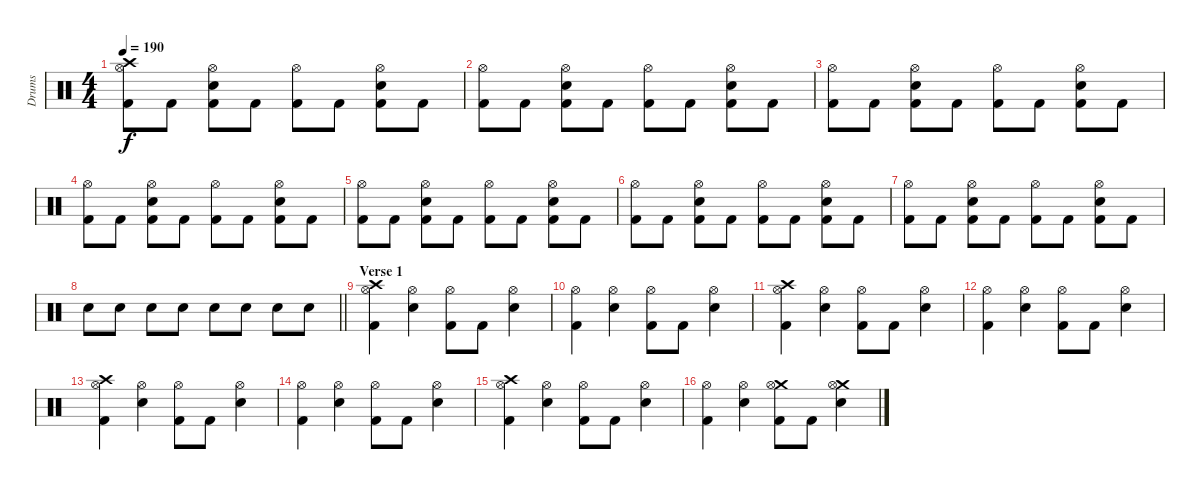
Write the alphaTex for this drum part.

\track ("Drums" "Drums") {instrument percussion}
\staff {score}
\articulation defaults
\ts (4 4)
\tempo 190
\clef neutral
\ks c
("Crash high (hit)" "Hi-Hat (open)" "Kick (hit) 2").8{dy f} "Kick (hit) 2".8 ("Hi-Hat (open)" "Electric Snare (hit)" "Kick (hit) 2").8 "Kick (hit) 2".8 ("Hi-Hat (open)" "Kick (hit) 2").8 "Kick (hit) 2".8 ("Hi-Hat (open)" "Electric Snare (hit)" "Kick (hit) 2").8 "Kick (hit) 2".8 |
("Hi-Hat (open)" "Kick (hit) 2").8 "Kick (hit) 2".8 ("Hi-Hat (open)" "Electric Snare (hit)" "Kick (hit) 2").8 "Kick (hit) 2".8 ("Hi-Hat (open)" "Kick (hit) 2").8 "Kick (hit) 2".8 ("Hi-Hat (open)" "Electric Snare (hit)" "Kick (hit) 2").8 "Kick (hit) 2".8 |
("Hi-Hat (open)" "Kick (hit) 2").8 "Kick (hit) 2".8 ("Hi-Hat (open)" "Electric Snare (hit)" "Kick (hit) 2").8 "Kick (hit) 2".8 ("Hi-Hat (open)" "Kick (hit) 2").8 "Kick (hit) 2".8 ("Hi-Hat (open)" "Electric Snare (hit)" "Kick (hit) 2").8 "Kick (hit) 2".8 |
("Hi-Hat (open)" "Kick (hit) 2").8 "Kick (hit) 2".8 ("Hi-Hat (open)" "Electric Snare (hit)" "Kick (hit) 2").8 "Kick (hit) 2".8 ("Hi-Hat (open)" "Kick (hit) 2").8 "Kick (hit) 2".8 ("Hi-Hat (open)" "Electric Snare (hit)" "Kick (hit) 2").8 "Kick (hit) 2".8 |
("Hi-Hat (open)" "Kick (hit) 2").8 "Kick (hit) 2".8 ("Hi-Hat (open)" "Electric Snare (hit)" "Kick (hit) 2").8 "Kick (hit) 2".8 ("Hi-Hat (open)" "Kick (hit) 2").8 "Kick (hit) 2".8 ("Hi-Hat (open)" "Electric Snare (hit)" "Kick (hit) 2").8 "Kick (hit) 2".8 |
("Hi-Hat (open)" "Kick (hit) 2").8 "Kick (hit) 2".8 ("Hi-Hat (open)" "Electric Snare (hit)" "Kick (hit) 2").8 "Kick (hit) 2".8 ("Hi-Hat (open)" "Kick (hit) 2").8 "Kick (hit) 2".8 ("Hi-Hat (open)" "Electric Snare (hit)" "Kick (hit) 2").8 "Kick (hit) 2".8 |
("Hi-Hat (open)" "Kick (hit) 2").8 "Kick (hit) 2".8 ("Hi-Hat (open)" "Electric Snare (hit)" "Kick (hit) 2").8 "Kick (hit) 2".8 ("Hi-Hat (open)" "Kick (hit) 2").8 "Kick (hit) 2".8 ("Hi-Hat (open)" "Electric Snare (hit)" "Kick (hit) 2").8 "Kick (hit) 2".8 |
\barLineRight lightlight "Electric Snare (hit)".8 "Electric Snare (hit)".8 "Electric Snare (hit)".8 "Electric Snare (hit)".8 "Electric Snare (hit)".8 "Electric Snare (hit)".8 "Electric Snare (hit)".8 "Electric Snare (hit)".8
|
\section ("" "Verse 1")
("Crash high (hit)" "Hi-Hat (open)" "Kick (hit) 2").4 ("Hi-Hat (open)" "Electric Snare (hit)").4 ("Hi-Hat (open)" "Kick (hit) 2").8 "Kick (hit) 2".8 ("Hi-Hat (open)" "Electric Snare (hit)").4 |
("Hi-Hat (open)" "Kick (hit) 2").4 ("Hi-Hat (open)" "Electric Snare (hit)").4 ("Hi-Hat (open)" "Kick (hit) 2").8 "Kick (hit) 2".8 ("Hi-Hat (open)" "Electric Snare (hit)").4 |
("Crash high (hit)" "Hi-Hat (open)" "Kick (hit) 2").4 ("Hi-Hat (open)" "Electric Snare (hit)").4 ("Hi-Hat (open)" "Kick (hit) 2").8 "Kick (hit) 2".8 ("Hi-Hat (open)" "Electric Snare (hit)").4 |
("Hi-Hat (open)" "Kick (hit) 2").4 ("Hi-Hat (open)" "Electric Snare (hit)").4 ("Hi-Hat (open)" "Kick (hit) 2").8 "Kick (hit) 2".8 ("Hi-Hat (open)" "Electric Snare (hit)").4 |
("Crash high (hit)" "Hi-Hat (open)" "Kick (hit) 2").4 ("Hi-Hat (open)" "Electric Snare (hit)").4 ("Hi-Hat (open)" "Kick (hit) 2").8 "Kick (hit) 2".8 ("Hi-Hat (open)" "Electric Snare (hit)").4 |
("Hi-Hat (open)" "Kick (hit) 2").4 ("Hi-Hat (open)" "Electric Snare (hit)").4 ("Hi-Hat (open)" "Kick (hit) 2").8 "Kick (hit) 2".8 ("Hi-Hat (open)" "Electric Snare (hit)").4 |
("Crash high (hit)" "Hi-Hat (open)" "Kick (hit) 2").4 ("Hi-Hat (open)" "Electric Snare (hit)").4 ("Hi-Hat (open)" "Kick (hit) 2").8 "Kick (hit) 2".8 ("Hi-Hat (open)" "Electric Snare (hit)").4 |
("Hi-Hat (open)" "Kick (hit) 2").4 ("Hi-Hat (open)" "Electric Snare (hit)").4 ("Crash medium (hit)" "Hi-Hat (open)" "Kick (hit) 2").8 "Kick (hit) 2".8 ("Crash medium (hit)" "Hi-Hat (open)" "Electric Snare (hit)").4
